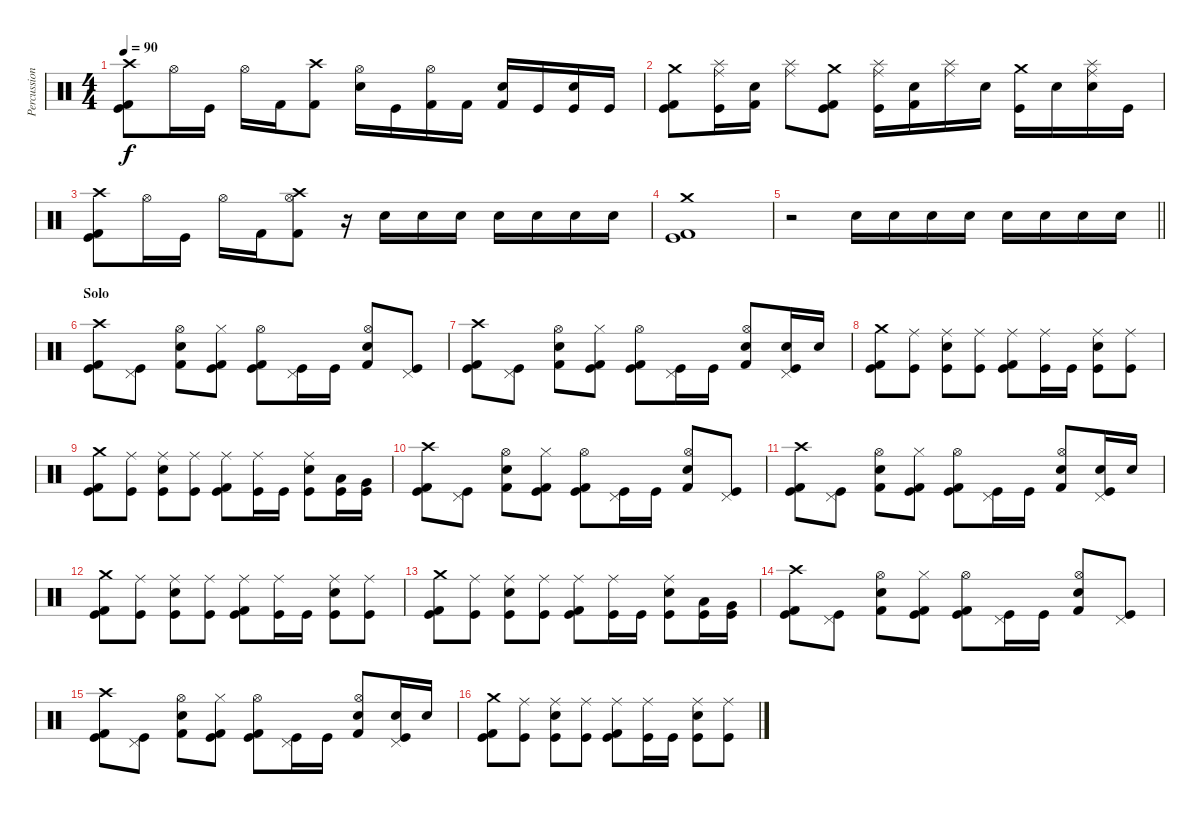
\track ("Percussion" "Percussion") {instrument percussion}
\staff {score}
\articulation defaults
\ts (4 4)
\tempo 90
\clef neutral
\ks c
("Kick (hit)" "Kick (hit) 2" "Crash high (hit)").8{dy f} "Hi-Hat (open)".16 "Kick (hit)".16 "Hi-Hat (open)".16 "Kick (hit) 2".16 ("Kick (hit) 2" "Crash high (hit)").8 ("Electric Snare (hit)" "Hi-Hat (open)").16 "Kick (hit)".16 ("Kick (hit) 2" "Hi-Hat (open)").16 "Kick (hit) 2".16 ("Kick (hit) 2" "Electric Snare (hit)").16 "Kick (hit)".16 ("Kick (hit)" "Snare (hit) 2").16 "Kick (hit)".16 |
("Kick (hit)" "Kick (hit) 2" "Crash medium (hit)").8 ("Kick (hit)" "Splash (hit)" "Ride (middle)").16 ("Kick (hit) 2" "Electric Snare (hit)").16 ("Splash (hit)" "Ride (middle)").8 ("Kick (hit)" "Kick (hit) 2" "Crash medium (hit)").8 ("Kick (hit)" "Splash (hit)" "Ride (middle)").16 ("Kick (hit) 2" "Electric Snare (hit)").16 ("Splash (hit)" "Ride (middle)").16 "Electric Snare (hit)".16 ("Kick (hit)" "Crash medium (hit)").16 "Electric Snare (hit)".16 ("Electric Snare (hit)" "Splash (hit)" "Ride (middle)").16 "Kick (hit)".16 |
("Kick (hit)" "Kick (hit) 2" "Crash high (hit)").8 "Hi-Hat (open)".16 "Kick (hit)".16 "Hi-Hat (open)".16 "Kick (hit) 2".16 ("Kick (hit) 2" "Hi-Hat (open)" "Crash high (hit)").8 r.16 "Electric Snare (hit)".16 "Snare (hit) 2".16 "Snare (hit) 2".16 "Electric Snare (hit)".16 "Electric Snare (hit)".16 "Snare (hit) 2".16 "Snare (hit) 2".16 |
("Kick (hit)" "Kick (hit) 2" "Crash medium (hit)").1 |
\barLineRight lightlight
r.2 "Snare (hit) 2".16 "Snare (hit) 2".16 "Snare (hit) 2".16 "Snare (hit) 2".16 "Snare (hit) 2".16 "Snare (hit) 2".16 "Snare (hit) 2".16 "Snare (hit) 2".16 |
\section ("" "Solo")
("Kick (hit)" "Kick (hit) 2" "Crash high (hit)").8 ("Kick (hit)" "Pedal Hi-Hat (hit)").8 ("Kick (hit) 2" "Electric Snare (hit)" "Hi-Hat (open)").8 ("Kick (hit)" "Kick (hit) 2" "Hi-Hat (closed)").8 ("Kick (hit)" "Kick (hit) 2" "Hi-Hat (open)").8 ("Kick (hit)" "Pedal Hi-Hat (hit)").16 "Kick (hit)".16 ("Kick (hit) 2" "Electric Snare (hit)" "Hi-Hat (open)").8 ("Kick (hit)" "Pedal Hi-Hat (hit)").8 |
("Kick (hit)" "Kick (hit) 2" "Crash high (hit)").8 ("Kick (hit)" "Pedal Hi-Hat (hit)").8 ("Kick (hit) 2" "Electric Snare (hit)" "Hi-Hat (open)").8 ("Kick (hit)" "Kick (hit) 2" "Hi-Hat (closed)").8 ("Kick (hit)" "Kick (hit) 2" "Hi-Hat (open)").8 ("Kick (hit)" "Pedal Hi-Hat (hit)").16 "Kick (hit)".16 ("Kick (hit) 2" "Electric Snare (hit)" "Hi-Hat (open)").8 ("Kick (hit)" "Electric Snare (hit)" "Pedal Hi-Hat (hit)").16 "Electric Snare (hit)".16 |
("Kick (hit)" "Kick (hit) 2" "Crash medium (hit)").8 ("Kick (hit)" "Ride (middle)").8 ("Kick (hit)" "Electric Snare (hit)" "Ride (middle)").8 ("Kick (hit)" "Ride (middle)").8 ("Kick (hit)" "Kick (hit) 2" "Ride (middle)").8 ("Kick (hit)" "Ride (middle)").16 "Kick (hit)".16 ("Kick (hit)" "Electric Snare (hit)" "Ride (middle)").8 ("Kick (hit)" "Ride (middle)").8 |
("Kick (hit)" "Kick (hit) 2" "Crash medium (hit)").8 ("Kick (hit)" "Ride (middle)").8 ("Kick (hit)" "Electric Snare (hit)" "Ride (middle)").8 ("Kick (hit)" "Ride (middle)").8 ("Kick (hit)" "Kick (hit) 2" "Ride (middle)").8 ("Kick (hit)" "Ride (middle)").16 "Kick (hit)".16 ("Kick (hit)" "Electric Snare (hit)" "Ride (middle)").8 ("Kick (hit)" "Low Tom (hit)").16 ("Kick (hit)" "Very Low Tom (hit)").16 |
("Kick (hit)" "Kick (hit) 2" "Crash high (hit)").8 ("Kick (hit)" "Pedal Hi-Hat (hit)").8 ("Kick (hit) 2" "Electric Snare (hit)" "Hi-Hat (open)").8 ("Kick (hit)" "Kick (hit) 2" "Hi-Hat (closed)").8 ("Kick (hit)" "Kick (hit) 2" "Hi-Hat (open)").8 ("Kick (hit)" "Pedal Hi-Hat (hit)").16 "Kick (hit)".16 ("Kick (hit) 2" "Electric Snare (hit)" "Hi-Hat (open)").8 ("Kick (hit)" "Pedal Hi-Hat (hit)").8 |
("Kick (hit)" "Kick (hit) 2" "Crash high (hit)").8 ("Kick (hit)" "Pedal Hi-Hat (hit)").8 ("Kick (hit) 2" "Electric Snare (hit)" "Hi-Hat (open)").8 ("Kick (hit)" "Kick (hit) 2" "Hi-Hat (closed)").8 ("Kick (hit)" "Kick (hit) 2" "Hi-Hat (open)").8 ("Kick (hit)" "Pedal Hi-Hat (hit)").16 "Kick (hit)".16 ("Kick (hit) 2" "Electric Snare (hit)" "Hi-Hat (open)").8 ("Kick (hit)" "Electric Snare (hit)" "Pedal Hi-Hat (hit)").16 "Electric Snare (hit)".16 |
("Kick (hit)" "Kick (hit) 2" "Crash medium (hit)").8 ("Kick (hit)" "Ride (middle)").8 ("Kick (hit)" "Electric Snare (hit)" "Ride (middle)").8 ("Kick (hit)" "Ride (middle)").8 ("Kick (hit)" "Kick (hit) 2" "Ride (middle)").8 ("Kick (hit)" "Ride (middle)").16 "Kick (hit)".16 ("Kick (hit)" "Electric Snare (hit)" "Ride (middle)").8 ("Kick (hit)" "Ride (middle)").8 |
("Kick (hit)" "Kick (hit) 2" "Crash medium (hit)").8 ("Kick (hit)" "Ride (middle)").8 ("Kick (hit)" "Electric Snare (hit)" "Ride (middle)").8 ("Kick (hit)" "Ride (middle)").8 ("Kick (hit)" "Kick (hit) 2" "Ride (middle)").8 ("Kick (hit)" "Ride (middle)").16 "Kick (hit)".16 ("Kick (hit)" "Electric Snare (hit)" "Ride (middle)").8 ("Kick (hit)" "Low Tom (hit)").16 ("Kick (hit)" "Very Low Tom (hit)").16 |
("Kick (hit)" "Kick (hit) 2" "Crash high (hit)").8 ("Kick (hit)" "Pedal Hi-Hat (hit)").8 ("Kick (hit) 2" "Electric Snare (hit)" "Hi-Hat (open)").8 ("Kick (hit)" "Kick (hit) 2" "Hi-Hat (closed)").8 ("Kick (hit)" "Kick (hit) 2" "Hi-Hat (open)").8 ("Kick (hit)" "Pedal Hi-Hat (hit)").16 "Kick (hit)".16 ("Kick (hit) 2" "Electric Snare (hit)" "Hi-Hat (open)").8 ("Kick (hit)" "Pedal Hi-Hat (hit)").8 |
("Kick (hit)" "Kick (hit) 2" "Crash high (hit)").8 ("Kick (hit)" "Pedal Hi-Hat (hit)").8 ("Kick (hit) 2" "Electric Snare (hit)" "Hi-Hat (open)").8 ("Kick (hit)" "Kick (hit) 2" "Hi-Hat (closed)").8 ("Kick (hit)" "Kick (hit) 2" "Hi-Hat (open)").8 ("Kick (hit)" "Pedal Hi-Hat (hit)").16 "Kick (hit)".16 ("Kick (hit) 2" "Electric Snare (hit)" "Hi-Hat (open)").8 ("Kick (hit)" "Electric Snare (hit)" "Pedal Hi-Hat (hit)").16 "Electric Snare (hit)".16 |
("Kick (hit)" "Kick (hit) 2" "Crash medium (hit)").8 ("Kick (hit)" "Ride (middle)").8 ("Kick (hit)" "Electric Snare (hit)" "Ride (middle)").8 ("Kick (hit)" "Ride (middle)").8 ("Kick (hit)" "Kick (hit) 2" "Ride (middle)").8 ("Kick (hit)" "Ride (middle)").16 "Kick (hit)".16 ("Kick (hit)" "Electric Snare (hit)" "Ride (middle)").8 ("Kick (hit)" "Ride (middle)").8
